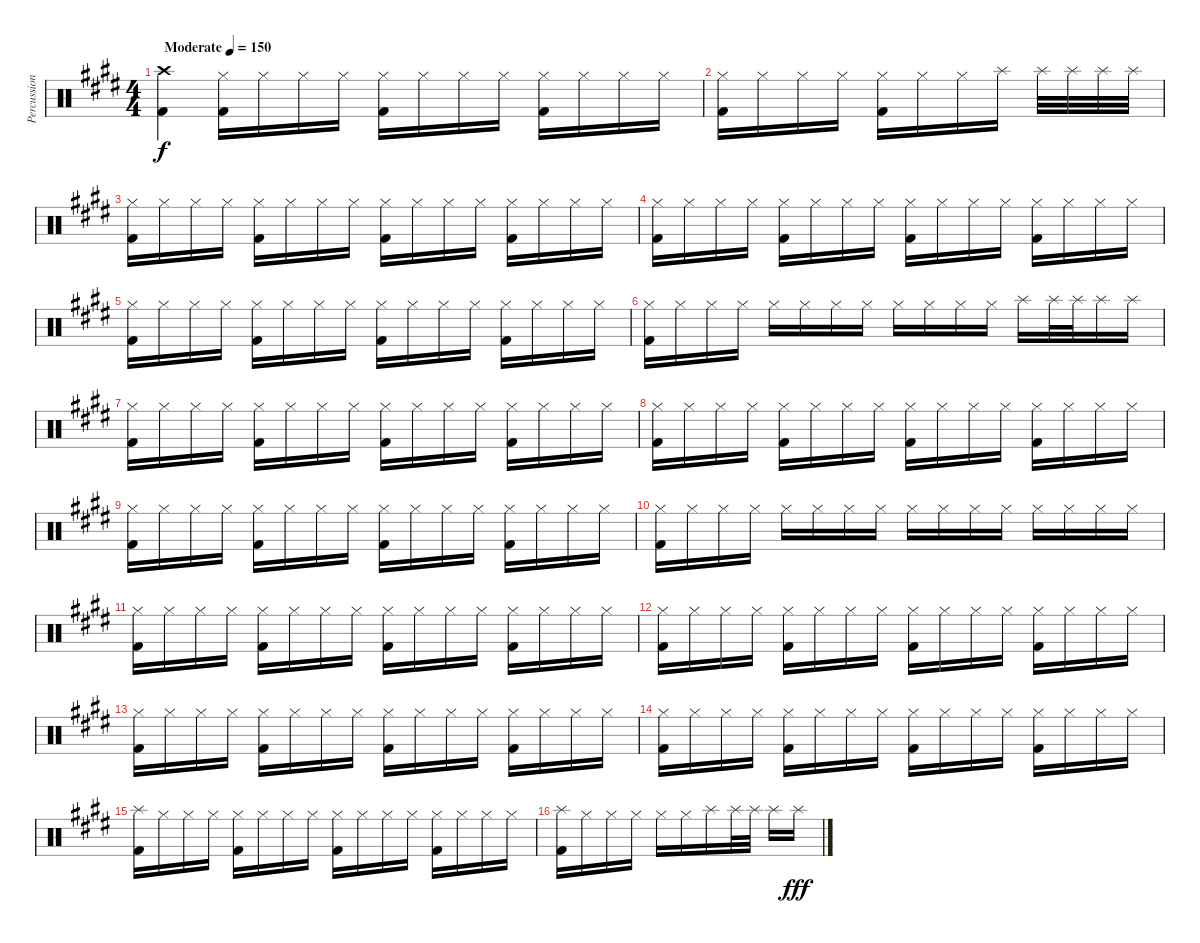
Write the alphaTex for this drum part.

\track ("Percussion" "Percussion") {instrument percussion}
\staff {score}
\articulation defaults
\ts (4 4)
\tempo (150 "Moderate")
\clef neutral
\ks e
("Crash high (hit)" "Kick (hit) 2").4{dy f} ("Hi-Hat (closed)" "Kick (hit) 2").16 "Hi-Hat (closed)".16 "Hi-Hat (closed)".16 "Hi-Hat (closed)".16 ("Hi-Hat (closed)" "Kick (hit) 2").16 "Hi-Hat (closed)".16 "Hi-Hat (closed)".16 "Hi-Hat (closed)".16 ("Hi-Hat (closed)" "Kick (hit) 2").16 "Hi-Hat (closed)".16 "Hi-Hat (closed)".16 "Hi-Hat (closed)".16 |
("Hi-Hat (closed)" "Kick (hit) 2").16 "Hi-Hat (closed)".16 "Hi-Hat (closed)".16 "Hi-Hat (closed)".16 ("Hi-Hat (closed)" "Kick (hit) 2").16 "Hi-Hat (closed)".16 "Hi-Hat (closed)".16 "Splash (hit)".16 "Splash (hit)".32 "Splash (hit)".32 "Splash (hit)".32 "Splash (hit)".32 |
("Hi-Hat (closed)" "Kick (hit) 2").16 "Hi-Hat (closed)".16 "Hi-Hat (closed)".16 "Hi-Hat (closed)".16 ("Hi-Hat (closed)" "Kick (hit) 2").16 "Hi-Hat (closed)".16 "Hi-Hat (closed)".16 "Hi-Hat (closed)".16 ("Hi-Hat (closed)" "Kick (hit) 2").16 "Hi-Hat (closed)".16 "Hi-Hat (closed)".16 "Hi-Hat (closed)".16 ("Hi-Hat (closed)" "Kick (hit) 2").16 "Hi-Hat (closed)".16 "Hi-Hat (closed)".16 "Hi-Hat (closed)".16 |
("Hi-Hat (closed)" "Kick (hit) 2").16 "Hi-Hat (closed)".16 "Hi-Hat (closed)".16 "Hi-Hat (closed)".16 ("Hi-Hat (closed)" "Kick (hit) 2").16 "Hi-Hat (closed)".16 "Hi-Hat (closed)".16 "Hi-Hat (closed)".16 ("Hi-Hat (closed)" "Kick (hit) 2").16 "Hi-Hat (closed)".16 "Hi-Hat (closed)".16 "Hi-Hat (closed)".16 ("Hi-Hat (closed)" "Kick (hit) 2").16 "Hi-Hat (closed)".16 "Hi-Hat (closed)".16 "Hi-Hat (closed)".16 |
("Hi-Hat (closed)" "Kick (hit) 2").16 "Hi-Hat (closed)".16 "Hi-Hat (closed)".16 "Hi-Hat (closed)".16 ("Hi-Hat (closed)" "Kick (hit) 2").16 "Hi-Hat (closed)".16 "Hi-Hat (closed)".16 "Hi-Hat (closed)".16 ("Hi-Hat (closed)" "Kick (hit) 2").16 "Hi-Hat (closed)".16 "Hi-Hat (closed)".16 "Hi-Hat (closed)".16 ("Hi-Hat (closed)" "Kick (hit) 2").16 "Hi-Hat (closed)".16 "Hi-Hat (closed)".16 "Hi-Hat (closed)".16 |
("Hi-Hat (closed)" "Kick (hit) 2").16 "Hi-Hat (closed)".16 "Hi-Hat (closed)".16 "Hi-Hat (closed)".16 "Hi-Hat (closed)".16 "Hi-Hat (closed)".16 "Hi-Hat (closed)".16 "Hi-Hat (closed)".16 "Hi-Hat (closed)".16 "Hi-Hat (closed)".16 "Hi-Hat (closed)".16 "Hi-Hat (closed)".16 "Splash (hit)".16 "Splash (hit)".32 "Splash (hit)".32 "Splash (hit)".16 "Splash (hit)".16 |
("Hi-Hat (closed)" "Kick (hit) 2").16 "Hi-Hat (closed)".16 "Hi-Hat (closed)".16 "Hi-Hat (closed)".16 ("Hi-Hat (closed)" "Kick (hit) 2").16 "Hi-Hat (closed)".16 "Hi-Hat (closed)".16 "Hi-Hat (closed)".16 ("Hi-Hat (closed)" "Kick (hit) 2").16 "Hi-Hat (closed)".16 "Hi-Hat (closed)".16 "Hi-Hat (closed)".16 ("Hi-Hat (closed)" "Kick (hit) 2").16 "Hi-Hat (closed)".16 "Hi-Hat (closed)".16 "Hi-Hat (closed)".16 |
("Hi-Hat (closed)" "Kick (hit) 2").16 "Hi-Hat (closed)".16 "Hi-Hat (closed)".16 "Hi-Hat (closed)".16 ("Hi-Hat (closed)" "Kick (hit) 2").16 "Hi-Hat (closed)".16 "Hi-Hat (closed)".16 "Hi-Hat (closed)".16 ("Hi-Hat (closed)" "Kick (hit) 2").16 "Hi-Hat (closed)".16 "Hi-Hat (closed)".16 "Hi-Hat (closed)".16 ("Hi-Hat (closed)" "Kick (hit) 2").16 "Hi-Hat (closed)".16 "Hi-Hat (closed)".16 "Hi-Hat (closed)".16 |
("Hi-Hat (closed)" "Kick (hit) 2").16 "Hi-Hat (closed)".16 "Hi-Hat (closed)".16 "Hi-Hat (closed)".16 ("Hi-Hat (closed)" "Kick (hit) 2").16 "Hi-Hat (closed)".16 "Hi-Hat (closed)".16 "Hi-Hat (closed)".16 ("Hi-Hat (closed)" "Kick (hit) 2").16 "Hi-Hat (closed)".16 "Hi-Hat (closed)".16 "Hi-Hat (closed)".16 ("Hi-Hat (closed)" "Kick (hit) 2").16 "Hi-Hat (closed)".16 "Hi-Hat (closed)".16 "Hi-Hat (closed)".16 |
("Hi-Hat (closed)" "Kick (hit) 2").16 "Hi-Hat (closed)".16 "Hi-Hat (closed)".16 "Hi-Hat (closed)".16 "Hi-Hat (closed)".16 "Hi-Hat (closed)".16 "Hi-Hat (closed)".16 "Hi-Hat (closed)".16 "Hi-Hat (closed)".16 "Hi-Hat (closed)".16 "Hi-Hat (closed)".16 "Hi-Hat (closed)".16 "Hi-Hat (closed)".16 "Hi-Hat (closed)".16 "Hi-Hat (closed)".16 "Hi-Hat (closed)".16 |
("Hi-Hat (closed)" "Kick (hit) 2").16 "Hi-Hat (closed)".16 "Hi-Hat (closed)".16 "Hi-Hat (closed)".16 ("Hi-Hat (closed)" "Kick (hit) 2").16 "Hi-Hat (closed)".16 "Hi-Hat (closed)".16 "Hi-Hat (closed)".16 ("Hi-Hat (closed)" "Kick (hit) 2").16 "Hi-Hat (closed)".16 "Hi-Hat (closed)".16 "Hi-Hat (closed)".16 ("Hi-Hat (closed)" "Kick (hit) 2").16 "Hi-Hat (closed)".16 "Hi-Hat (closed)".16 "Hi-Hat (closed)".16 |
("Hi-Hat (closed)" "Kick (hit) 2").16 "Hi-Hat (closed)".16 "Hi-Hat (closed)".16 "Hi-Hat (closed)".16 ("Hi-Hat (closed)" "Kick (hit) 2").16 "Hi-Hat (closed)".16 "Hi-Hat (closed)".16 "Hi-Hat (closed)".16 ("Hi-Hat (closed)" "Kick (hit) 2").16 "Hi-Hat (closed)".16 "Hi-Hat (closed)".16 "Hi-Hat (closed)".16 ("Hi-Hat (closed)" "Kick (hit) 2").16 "Hi-Hat (closed)".16 "Hi-Hat (closed)".16 "Hi-Hat (closed)".16 |
("Hi-Hat (closed)" "Kick (hit) 2").16 "Hi-Hat (closed)".16 "Hi-Hat (closed)".16 "Hi-Hat (closed)".16 ("Hi-Hat (closed)" "Kick (hit) 2").16 "Hi-Hat (closed)".16 "Hi-Hat (closed)".16 "Hi-Hat (closed)".16 ("Hi-Hat (closed)" "Kick (hit) 2").16 "Hi-Hat (closed)".16 "Hi-Hat (closed)".16 "Hi-Hat (closed)".16 ("Hi-Hat (closed)" "Kick (hit) 2").16 "Hi-Hat (closed)".16 "Hi-Hat (closed)".16 "Hi-Hat (closed)".16 |
("Hi-Hat (closed)" "Kick (hit) 2").16 "Hi-Hat (closed)".16 "Hi-Hat (closed)".16 "Hi-Hat (closed)".16 ("Hi-Hat (closed)" "Kick (hit) 2").16 "Hi-Hat (closed)".16 "Hi-Hat (closed)".16 "Hi-Hat (closed)".16 ("Hi-Hat (closed)" "Kick (hit) 2").16 "Hi-Hat (closed)".16 "Hi-Hat (closed)".16 "Hi-Hat (closed)".16 ("Hi-Hat (closed)" "Kick (hit) 2").16 "Hi-Hat (closed)".16 "Hi-Hat (closed)".16 "Hi-Hat (closed)".16 |
("Splash (hit)" "Kick (hit) 2").16 "Hi-Hat (closed)".16 "Hi-Hat (closed)".16 "Hi-Hat (closed)".16 ("Hi-Hat (closed)" "Kick (hit) 2").16 "Hi-Hat (closed)".16 "Hi-Hat (closed)".16 "Hi-Hat (closed)".16 ("Hi-Hat (closed)" "Kick (hit) 2").16 "Hi-Hat (closed)".16 "Hi-Hat (closed)".16 "Hi-Hat (closed)".16 ("Hi-Hat (closed)" "Kick (hit) 2").16 "Hi-Hat (closed)".16 "Hi-Hat (closed)".16 "Hi-Hat (closed)".16 |
("Splash (hit)" "Kick (hit) 2").16 "Hi-Hat (closed)".16 "Hi-Hat (closed)".16 "Hi-Hat (closed)".16 "Hi-Hat (closed)".16 "Hi-Hat (closed)".16 "Splash (hit)".16 "Splash (hit)".32 "Splash (hit)".32 "Splash (hit)".16 "Splash (hit)".16{dy fff}
